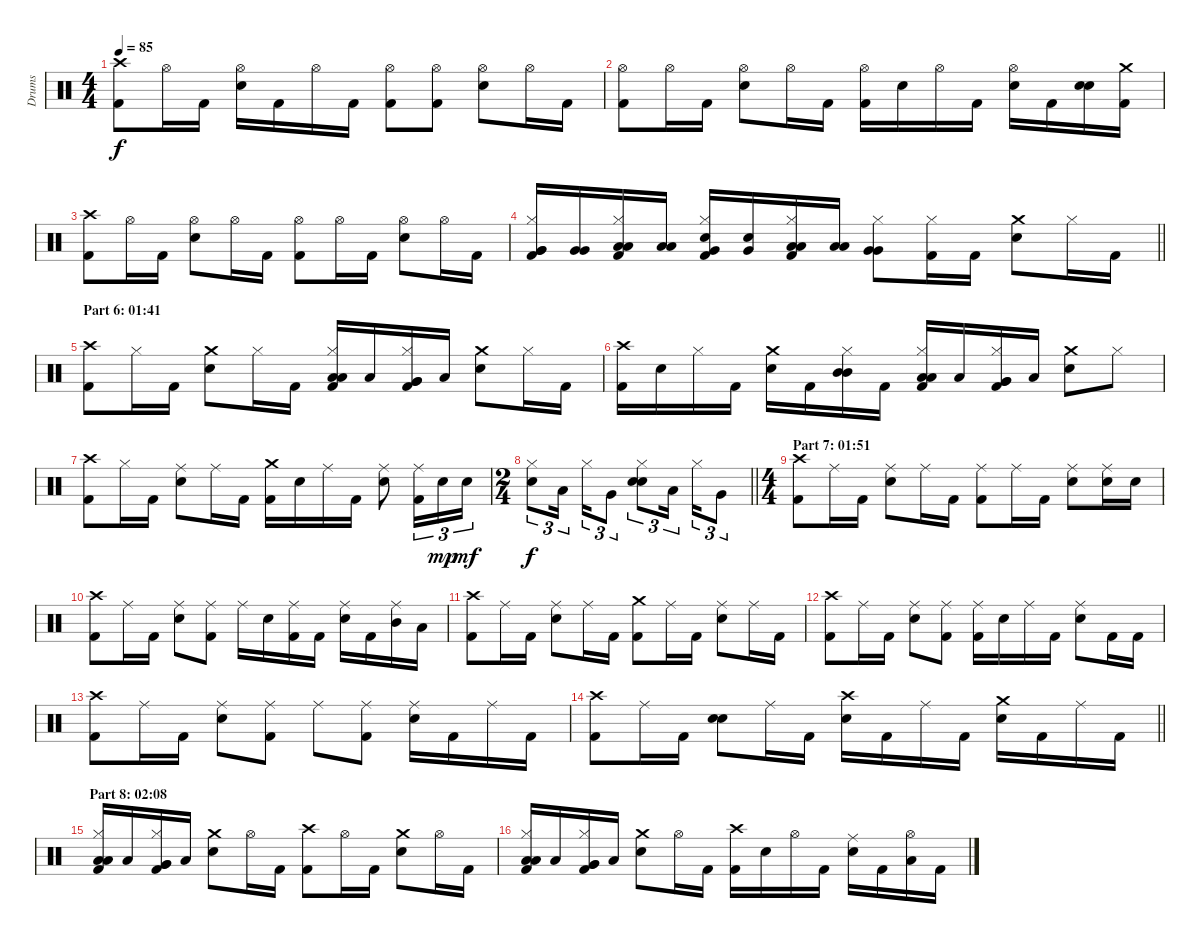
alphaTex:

\track ("Drums" "Drums") {instrument percussion}
\staff {score}
\articulation defaults
\ts (4 4)
\tempo 85
\clef neutral
\ks c
("Crash high (hit)" "Kick (hit) 2").8{dy f} "Hi-Hat (open)".16 "Kick (hit) 2".16 ("Hi-Hat (open)" "Electric Snare (hit)").16 "Kick (hit) 2".16 "Hi-Hat (open)".16 "Kick (hit) 2".16 ("Hi-Hat (open)" "Kick (hit) 2").8 ("Hi-Hat (open)" "Kick (hit) 2").8 ("Hi-Hat (open)" "Electric Snare (hit)").8 "Hi-Hat (open)".16 "Kick (hit) 2".16 |
("Hi-Hat (open)" "Kick (hit) 2").8 "Hi-Hat (open)".16 "Kick (hit) 2".16 ("Hi-Hat (open)" "Electric Snare (hit)").8 "Hi-Hat (open)".16 "Kick (hit) 2".16 ("Hi-Hat (open)" "Kick (hit) 2").16 "Electric Snare (hit)".16 "Hi-Hat (open)".16 "Kick (hit) 2".16 ("Hi-Hat (open)" "Electric Snare (hit)").16 "Kick (hit) 2".16 ("Electric Snare (hit)" "Electric Snare (hit)").16{bd 120} ("Crash medium (hit)" "Kick (hit) 2").16 |
("Crash high (hit)" "Kick (hit) 2").8 "Hi-Hat (open)".16 "Kick (hit) 2".16 ("Hi-Hat (open)" "Electric Snare (hit)").8 "Hi-Hat (open)".16 "Kick (hit) 2".16 ("Hi-Hat (open)" "Kick (hit) 2").8 "Hi-Hat (open)".16 "Kick (hit) 2".16 ("Hi-Hat (open)" "Electric Snare (hit)").8 "Hi-Hat (open)".16 "Kick (hit) 2".16 |
\barLineRight lightlight
("Hi-Hat (closed)" "Very Low Tom (hit)" "Very Low Tom (hit)" "Kick (hit) 2").16{bu 30} ("Very Low Tom (hit)" "Very Low Tom (hit)").16{bu 30} ("Hi-Hat (closed)" "Low Floor Tom (hit)" "Low Floor Tom (hit)" "Kick (hit) 2").16{bu 30} ("Low Floor Tom (hit)" "Low Floor Tom (hit)").16{bu 30} ("Hi-Hat (closed)" "Snare (hit)" "Very Low Tom (hit)" "Kick (hit) 2").16{bu 30} ("Snare (hit)" "Very Low Tom (hit)").16{bu 30} ("Hi-Hat (closed)" "Low Floor Tom (hit)" "Low Floor Tom (hit)" "Kick (hit) 2").16{bu 30} ("Low Floor Tom (hit)" "Low Floor Tom (hit)").16{bu 30} ("Hi-Hat (closed)" "Very Low Tom (hit)" "Very Low Tom (hit)").8{bu 30} ("Hi-Hat (closed)" "Kick (hit) 2").16 "Kick (hit) 2".16 ("Crash medium (hit)" "Electric Snare (hit)").8 "Hi-Hat (closed)".16 "Kick (hit) 2".16 |
\section ("" "Part 6: 01:41")
("Crash high (hit)" "Kick (hit) 2").8 "Hi-Hat (closed)".16 "Kick (hit) 2".16 ("Crash medium (hit)" "Electric Snare (hit)").8 "Hi-Hat (closed)".16 "Kick (hit) 2".16 ("Hi-Hat (closed)" "Low Tom (hit)" "Low Tom (hit)" "Kick (hit) 2").16{bu 30} "Low Floor Tom (hit)".16 ("Hi-Hat (closed)" "Very Low Tom (hit)" "Very Low Tom (hit)" "Kick (hit) 2").16{bu 30} "Low Floor Tom (hit)".16 ("Crash medium (hit)" "Electric Snare (hit)").8 "Hi-Hat (closed)".16 "Kick (hit) 2".16 |
("Crash high (hit)" "Kick (hit) 2").16 "Electric Snare (hit)".16 "Hi-Hat (closed)".16 "Kick (hit) 2".16 ("Crash medium (hit)" "Electric Snare (hit)").16 "Kick (hit) 2".16 ("Hi-Hat (closed)" "Mid Tom (hit)" "Mid Tom (hit)").16{bu 30} "Kick (hit) 2".16 ("Hi-Hat (closed)" "Low Tom (hit)" "Low Tom (hit)" "Kick (hit) 2").16{bu 30} "Low Floor Tom (hit)".16 ("Hi-Hat (closed)" "Very Low Tom (hit)" "Very Low Tom (hit)" "Kick (hit) 2").16{bu 30} "Low Floor Tom (hit)".16 ("Crash medium (hit)" "Electric Snare (hit)").8 "Hi-Hat (closed)".8 |
("Crash high (hit)" "Kick (hit) 2").8 "Hi-Hat (closed)".16 "Kick (hit) 2".16 ("Ride (middle)" "Electric Snare (hit)").8 "Ride (middle)".16 "Kick (hit) 2".16 ("Crash medium (hit)" "Kick (hit) 2").16 "Electric Snare (hit)".16 "Ride (middle)".16 "Kick (hit) 2".16 ("Ride (middle)" "Electric Snare (hit)").8 ("Ride (middle)" "Kick (hit) 2").16{tu (3 2)} "Electric Snare (hit)".16{tu (3 2) dy mp} "Electric Snare (hit)".16{tu (3 2) dy mf} |
\ts (2 4)
\barLineRight lightlight
("Hi-Hat (closed)" "Electric Snare (hit)").8{tu (3 2) dy f} "Low Tom (hit)".16{tu (3 2) beam splitsecondary} "Hi-Hat (closed)".16{tu (3 2)} "Very Low Tom (hit)".8{tu (3 2)} ("Hi-Hat (closed)" "Electric Snare (hit)" "Electric Snare (hit)").8{tu (3 2) bu 30} "Low Tom (hit)".16{tu (3 2) beam splitsecondary} "Hi-Hat (closed)".16{tu (3 2)} "Very Low Tom (hit)".8{tu (3 2)} |
\ts (4 4)
\section ("" "Part 7: 01:51")
("Crash high (hit)" "Kick (hit) 2").8 "Ride (middle)".16 "Kick (hit) 2".16 ("Ride (middle)" "Electric Snare (hit)").8 "Ride (middle)".16 "Kick (hit) 2".16 ("Ride (middle)" "Kick (hit) 2").8 "Ride (middle)".16 "Kick (hit) 2".16 ("Ride (middle)" "Electric Snare (hit)").8 ("Ride (middle)" "Electric Snare (hit)").16 "Electric Snare (hit)".16 |
("Crash high (hit)" "Kick (hit) 2").8 "Ride (middle)".16 "Kick (hit) 2".16 ("Ride (middle)" "Electric Snare (hit)").8 ("Ride (middle)" "Kick (hit) 2").8 "Ride (middle)".16 "Electric Snare (hit)".16 ("Ride (middle)" "Kick (hit) 2").16 "Kick (hit) 2".16 ("Ride (middle)" "Electric Snare (hit)").16 "Kick (hit) 2".16 ("Ride (middle)" "Mid Tom (hit)").16 "Low Tom (hit)".16 |
("Crash high (hit)" "Kick (hit) 2").8 "Ride (middle)".16 "Kick (hit) 2".16 ("Ride (middle)" "Electric Snare (hit)").8 "Ride (middle)".16 "Kick (hit) 2".16 ("Crash medium (hit)" "Kick (hit) 2").8 "Ride (middle)".16 "Kick (hit) 2".16 ("Ride (middle)" "Electric Snare (hit)").8 "Ride (middle)".16 "Kick (hit) 2".16 |
("Crash high (hit)" "Kick (hit) 2").8 "Ride (middle)".16 "Kick (hit) 2".16 ("Ride (middle)" "Electric Snare (hit)").8 ("Ride (middle)" "Kick (hit) 2").8 ("Ride (middle)" "Kick (hit) 2").16 "Electric Snare (hit)".16 "Ride (middle)".16 "Kick (hit) 2".16 ("Ride (middle)" "Electric Snare (hit)").8 "Kick (hit) 2".16 "Kick (hit) 2".16 |
("Crash high (hit)" "Kick (hit) 2").8 "Ride (middle)".16 "Kick (hit) 2".16 ("Ride (middle)" "Electric Snare (hit)").8 ("Ride (middle)" "Kick (hit) 2").8 "Ride (middle)".8 ("Ride (middle)" "Kick (hit) 2").8 ("Ride (middle)" "Electric Snare (hit)").16 "Kick (hit) 2".16 "Ride (middle)".16 "Kick (hit) 2".16 |
\barLineRight lightlight
("Crash high (hit)" "Kick (hit) 2").8 "Ride (middle)".16 "Kick (hit) 2".16 ("Electric Snare (hit)" "Electric Snare (hit)").8{bd 60} "Ride (middle)".16 "Kick (hit) 2".16 ("Crash high (hit)" "Electric Snare (hit)").16 "Kick (hit) 2".16 "Ride (middle)".16 "Kick (hit) 2".16 ("Crash medium (hit)" "Electric Snare (hit)").16 "Kick (hit) 2".16 "Ride (middle)".16 "Kick (hit) 2".16 |
\section ("" "Part 8: 02:08")
("Hi-Hat (closed)" "Low Tom (hit)" "Low Tom (hit)" "Kick (hit) 2").16{bu 30} "Low Floor Tom (hit)".16 ("Hi-Hat (closed)" "Very Low Tom (hit)" "Very Low Tom (hit)" "Kick (hit) 2").16{bu 30} "Low Floor Tom (hit)".16 ("Crash medium (hit)" "Electric Snare (hit)").8 "Hi-Hat (open)".16 "Kick (hit) 2".16 ("Crash high (hit)" "Kick (hit) 2").8 "Hi-Hat (open)".16 "Kick (hit) 2".16 ("Crash medium (hit)" "Electric Snare (hit)").8 "Hi-Hat (open)".16 "Kick (hit) 2".16 |
("Hi-Hat (closed)" "Low Tom (hit)" "Low Tom (hit)" "Kick (hit) 2").16{bu 30} "Low Floor Tom (hit)".16 ("Hi-Hat (closed)" "Very Low Tom (hit)" "Very Low Tom (hit)" "Kick (hit) 2").16{bu 30} "Low Floor Tom (hit)".16 ("Crash medium (hit)" "Electric Snare (hit)").8 "Hi-Hat (open)".16 "Kick (hit) 2".16 ("Crash high (hit)" "Kick (hit) 2").16 "Electric Snare (hit)".16 "Hi-Hat (open)".16 "Kick (hit) 2".16 ("Ride (middle)" "Electric Snare (hit)").16 "Kick (hit) 2".16 ("Hi-Hat (open)" "Low Tom (hit)").16 "Kick (hit) 2".16
